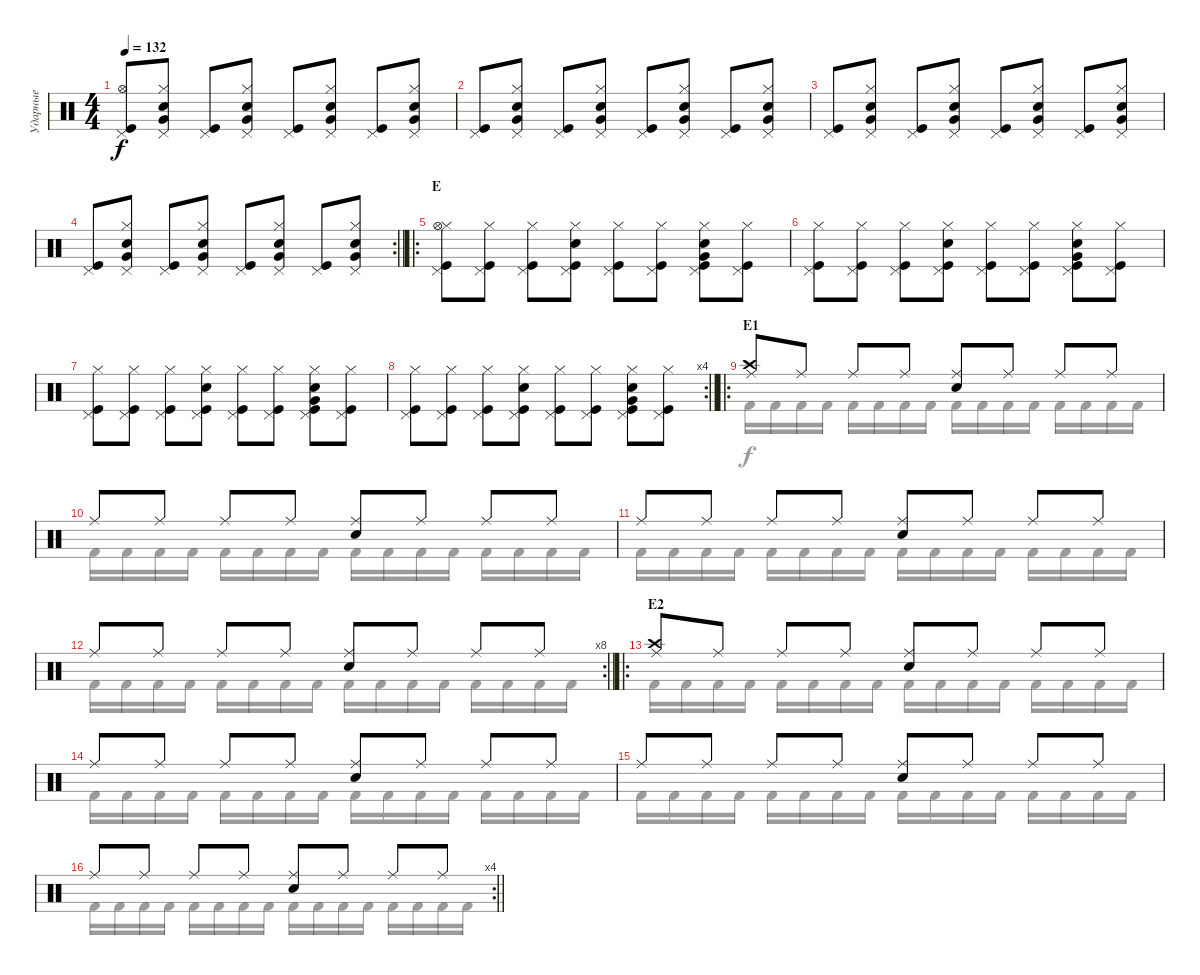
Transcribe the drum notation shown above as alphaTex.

\track ("Ударные" "Ударные") {instrument percussion}
\staff {score}
\articulation defaults
\voice
\ts (4 4)
\tempo 132
\clef neutral
\ks c
("Pedal Hi-Hat (hit)" "Hi-Hat (open)" "Kick (hit)").8{dy f} ("Pedal Hi-Hat (hit)" "Hi-Hat (closed)" "Electric Snare (hit)" "Very Low Tom (hit)").8 ("Pedal Hi-Hat (hit)" "Kick (hit)").8 ("Pedal Hi-Hat (hit)" "Hi-Hat (closed)" "Electric Snare (hit)" "Very Low Tom (hit)").8 ("Pedal Hi-Hat (hit)" "Kick (hit)").8 ("Pedal Hi-Hat (hit)" "Hi-Hat (closed)" "Electric Snare (hit)" "Very Low Tom (hit)").8 ("Pedal Hi-Hat (hit)" "Kick (hit)").8 ("Pedal Hi-Hat (hit)" "Hi-Hat (closed)" "Electric Snare (hit)" "Very Low Tom (hit)").8 |
("Pedal Hi-Hat (hit)" "Kick (hit)").8 ("Pedal Hi-Hat (hit)" "Hi-Hat (closed)" "Electric Snare (hit)" "Very Low Tom (hit)").8 ("Pedal Hi-Hat (hit)" "Kick (hit)").8 ("Pedal Hi-Hat (hit)" "Hi-Hat (closed)" "Electric Snare (hit)" "Very Low Tom (hit)").8 ("Pedal Hi-Hat (hit)" "Kick (hit)").8 ("Pedal Hi-Hat (hit)" "Hi-Hat (closed)" "Electric Snare (hit)" "Very Low Tom (hit)").8 ("Pedal Hi-Hat (hit)" "Kick (hit)").8 ("Pedal Hi-Hat (hit)" "Hi-Hat (closed)" "Electric Snare (hit)" "Very Low Tom (hit)").8 |
("Pedal Hi-Hat (hit)" "Kick (hit)").8 ("Pedal Hi-Hat (hit)" "Hi-Hat (closed)" "Electric Snare (hit)" "Very Low Tom (hit)").8 ("Pedal Hi-Hat (hit)" "Kick (hit)").8 ("Pedal Hi-Hat (hit)" "Hi-Hat (closed)" "Electric Snare (hit)" "Very Low Tom (hit)").8 ("Pedal Hi-Hat (hit)" "Kick (hit)").8 ("Pedal Hi-Hat (hit)" "Hi-Hat (closed)" "Electric Snare (hit)" "Very Low Tom (hit)").8 ("Pedal Hi-Hat (hit)" "Kick (hit)").8 ("Pedal Hi-Hat (hit)" "Hi-Hat (closed)" "Electric Snare (hit)" "Very Low Tom (hit)").8 |
\rc 2
\barLineRight lightlight
("Pedal Hi-Hat (hit)" "Kick (hit)").8 ("Pedal Hi-Hat (hit)" "Hi-Hat (closed)" "Electric Snare (hit)" "Very Low Tom (hit)").8 ("Pedal Hi-Hat (hit)" "Kick (hit)").8 ("Pedal Hi-Hat (hit)" "Hi-Hat (closed)" "Electric Snare (hit)" "Very Low Tom (hit)").8 ("Pedal Hi-Hat (hit)" "Kick (hit)").8 ("Pedal Hi-Hat (hit)" "Hi-Hat (closed)" "Electric Snare (hit)" "Very Low Tom (hit)").8 ("Pedal Hi-Hat (hit)" "Kick (hit)").8 ("Pedal Hi-Hat (hit)" "Hi-Hat (closed)" "Electric Snare (hit)" "Very Low Tom (hit)").8 |
\ro
\section ("" "E")
("Hi-Hat (closed)" "Pedal Hi-Hat (hit)" "Hi-Hat (open)" "Kick (hit)").8 ("Hi-Hat (closed)" "Pedal Hi-Hat (hit)" "Kick (hit)").8 ("Hi-Hat (closed)" "Pedal Hi-Hat (hit)" "Kick (hit)").8 ("Hi-Hat (closed)" "Pedal Hi-Hat (hit)" "Electric Snare (hit)" "Kick (hit)").8 ("Hi-Hat (closed)" "Pedal Hi-Hat (hit)" "Kick (hit)").8 ("Hi-Hat (closed)" "Pedal Hi-Hat (hit)" "Kick (hit)").8 ("Hi-Hat (closed)" "Pedal Hi-Hat (hit)" "Electric Snare (hit)" "Very Low Tom (hit)" "Kick (hit)").8 ("Hi-Hat (closed)" "Pedal Hi-Hat (hit)" "Kick (hit)").8 |
("Hi-Hat (closed)" "Pedal Hi-Hat (hit)" "Kick (hit)").8 ("Hi-Hat (closed)" "Pedal Hi-Hat (hit)" "Kick (hit)").8 ("Hi-Hat (closed)" "Pedal Hi-Hat (hit)" "Kick (hit)").8 ("Hi-Hat (closed)" "Pedal Hi-Hat (hit)" "Electric Snare (hit)" "Kick (hit)").8 ("Hi-Hat (closed)" "Pedal Hi-Hat (hit)" "Kick (hit)").8 ("Hi-Hat (closed)" "Pedal Hi-Hat (hit)" "Kick (hit)").8 ("Hi-Hat (closed)" "Pedal Hi-Hat (hit)" "Electric Snare (hit)" "Very Low Tom (hit)" "Kick (hit)").8 ("Hi-Hat (closed)" "Pedal Hi-Hat (hit)" "Kick (hit)").8 |
("Hi-Hat (closed)" "Pedal Hi-Hat (hit)" "Kick (hit)").8 ("Hi-Hat (closed)" "Pedal Hi-Hat (hit)" "Kick (hit)").8 ("Hi-Hat (closed)" "Pedal Hi-Hat (hit)" "Kick (hit)").8 ("Hi-Hat (closed)" "Pedal Hi-Hat (hit)" "Electric Snare (hit)" "Kick (hit)").8 ("Hi-Hat (closed)" "Pedal Hi-Hat (hit)" "Kick (hit)").8 ("Hi-Hat (closed)" "Pedal Hi-Hat (hit)" "Kick (hit)").8 ("Hi-Hat (closed)" "Pedal Hi-Hat (hit)" "Electric Snare (hit)" "Very Low Tom (hit)" "Kick (hit)").8 ("Hi-Hat (closed)" "Pedal Hi-Hat (hit)" "Kick (hit)").8 |
\rc 4
\barLineRight lightlight
("Hi-Hat (closed)" "Pedal Hi-Hat (hit)" "Kick (hit)").8 ("Hi-Hat (closed)" "Pedal Hi-Hat (hit)" "Kick (hit)").8 ("Hi-Hat (closed)" "Pedal Hi-Hat (hit)" "Kick (hit)").8 ("Hi-Hat (closed)" "Pedal Hi-Hat (hit)" "Electric Snare (hit)" "Kick (hit)").8 ("Hi-Hat (closed)" "Pedal Hi-Hat (hit)" "Kick (hit)").8 ("Hi-Hat (closed)" "Pedal Hi-Hat (hit)" "Kick (hit)").8 ("Hi-Hat (closed)" "Pedal Hi-Hat (hit)" "Electric Snare (hit)" "Very Low Tom (hit)" "Kick (hit)").8 ("Hi-Hat (closed)" "Pedal Hi-Hat (hit)" "Kick (hit)").8 |
\ro
\section ("" "E1")
("Ride (middle)" "Crash high (hit)").8 "Ride (middle)".8 "Ride (middle)".8 "Ride (middle)".8 ("Ride (middle)" "Electric Snare (hit)").8 "Ride (middle)".8 "Ride (middle)".8 "Ride (middle)".8 |
"Ride (middle)".8 "Ride (middle)".8 "Ride (middle)".8 "Ride (middle)".8 ("Ride (middle)" "Electric Snare (hit)").8 "Ride (middle)".8 "Ride (middle)".8 "Ride (middle)".8 |
"Ride (middle)".8 "Ride (middle)".8 "Ride (middle)".8 "Ride (middle)".8 ("Ride (middle)" "Electric Snare (hit)").8 "Ride (middle)".8 "Ride (middle)".8 "Ride (middle)".8 |
\rc 8
\barLineRight lightlight "Ride (middle)".8 "Ride (middle)".8 "Ride (middle)".8 "Ride (middle)".8
("Ride (middle)" "Electric Snare (hit)").8 "Ride (middle)".8 "Ride (middle)".8 "Ride (middle)".8 |
\ro
\section ("" "E2")
("Ride (middle)" "Crash high (hit)").8 "Ride (middle)".8 "Ride (middle)".8 "Ride (middle)".8 ("Ride (middle)" "Electric Snare (hit)").8 "Ride (middle)".8 "Ride (middle)".8 "Ride (middle)".8 |
"Ride (middle)".8 "Ride (middle)".8 "Ride (middle)".8 "Ride (middle)".8 ("Ride (middle)" "Electric Snare (hit)").8 "Ride (middle)".8 "Ride (middle)".8 "Ride (middle)".8 |
"Ride (middle)".8 "Ride (middle)".8 "Ride (middle)".8 "Ride (middle)".8 ("Ride (middle)" "Electric Snare (hit)").8 "Ride (middle)".8 "Ride (middle)".8 "Ride (middle)".8 |
\rc 4
\barLineRight lightlight "Ride (middle)".8 "Ride (middle)".8 "Ride (middle)".8 "Ride (middle)".8
("Ride (middle)" "Electric Snare (hit)").8 "Ride (middle)".8 "Ride (middle)".8 "Ride (middle)".8
\voice
\clef neutral
\ottava regular
\simile none
\ks c
|
|
|
\barLineRight lightlight
|
|
|
|
\barLineRight lightlight
|
"Kick (hit) 2".16 "Kick (hit) 2".16 "Kick (hit) 2".16 "Kick (hit) 2".16 "Kick (hit) 2".16 "Kick (hit) 2".16 "Kick (hit) 2".16 "Kick (hit) 2".16 "Kick (hit) 2".16 "Kick (hit) 2".16 "Kick (hit) 2".16 "Kick (hit) 2".16 "Kick (hit) 2".16 "Kick (hit) 2".16 "Kick (hit) 2".16 "Kick (hit) 2".16 |
"Kick (hit) 2".16 "Kick (hit) 2".16 "Kick (hit) 2".16 "Kick (hit) 2".16 "Kick (hit) 2".16 "Kick (hit) 2".16 "Kick (hit) 2".16 "Kick (hit) 2".16 "Kick (hit) 2".16 "Kick (hit) 2".16 "Kick (hit) 2".16 "Kick (hit) 2".16 "Kick (hit) 2".16 "Kick (hit) 2".16 "Kick (hit) 2".16 "Kick (hit) 2".16 |
"Kick (hit) 2".16 "Kick (hit) 2".16 "Kick (hit) 2".16 "Kick (hit) 2".16 "Kick (hit) 2".16 "Kick (hit) 2".16 "Kick (hit) 2".16 "Kick (hit) 2".16 "Kick (hit) 2".16 "Kick (hit) 2".16 "Kick (hit) 2".16 "Kick (hit) 2".16 "Kick (hit) 2".16 "Kick (hit) 2".16 "Kick (hit) 2".16 "Kick (hit) 2".16 |
\barLineRight lightlight "Kick (hit) 2".16 "Kick (hit) 2".16 "Kick (hit) 2".16 "Kick (hit) 2".16 "Kick (hit) 2".16 "Kick (hit) 2".16 "Kick (hit) 2".16 "Kick (hit) 2".16 "Kick (hit) 2".16 "Kick (hit) 2".16 "Kick (hit) 2".16 "Kick (hit) 2".16 "Kick (hit) 2".16 "Kick (hit) 2".16 "Kick (hit) 2".16 "Kick (hit) 2".16
|
"Kick (hit) 2".16 "Kick (hit) 2".16 "Kick (hit) 2".16 "Kick (hit) 2".16 "Kick (hit) 2".16 "Kick (hit) 2".16 "Kick (hit) 2".16 "Kick (hit) 2".16 "Kick (hit) 2".16 "Kick (hit) 2".16 "Kick (hit) 2".16 "Kick (hit) 2".16 "Kick (hit) 2".16 "Kick (hit) 2".16 "Kick (hit) 2".16 "Kick (hit) 2".16 |
"Kick (hit) 2".16 "Kick (hit) 2".16 "Kick (hit) 2".16 "Kick (hit) 2".16 "Kick (hit) 2".16 "Kick (hit) 2".16 "Kick (hit) 2".16 "Kick (hit) 2".16 "Kick (hit) 2".16 "Kick (hit) 2".16 "Kick (hit) 2".16 "Kick (hit) 2".16 "Kick (hit) 2".16 "Kick (hit) 2".16 "Kick (hit) 2".16 "Kick (hit) 2".16 |
"Kick (hit) 2".16 "Kick (hit) 2".16 "Kick (hit) 2".16 "Kick (hit) 2".16 "Kick (hit) 2".16 "Kick (hit) 2".16 "Kick (hit) 2".16 "Kick (hit) 2".16 "Kick (hit) 2".16 "Kick (hit) 2".16 "Kick (hit) 2".16 "Kick (hit) 2".16 "Kick (hit) 2".16 "Kick (hit) 2".16 "Kick (hit) 2".16 "Kick (hit) 2".16 |
\barLineRight lightlight "Kick (hit) 2".16 "Kick (hit) 2".16 "Kick (hit) 2".16 "Kick (hit) 2".16 "Kick (hit) 2".16 "Kick (hit) 2".16 "Kick (hit) 2".16 "Kick (hit) 2".16 "Kick (hit) 2".16 "Kick (hit) 2".16 "Kick (hit) 2".16 "Kick (hit) 2".16 "Kick (hit) 2".16 "Kick (hit) 2".16 "Kick (hit) 2".16 "Kick (hit) 2".16
